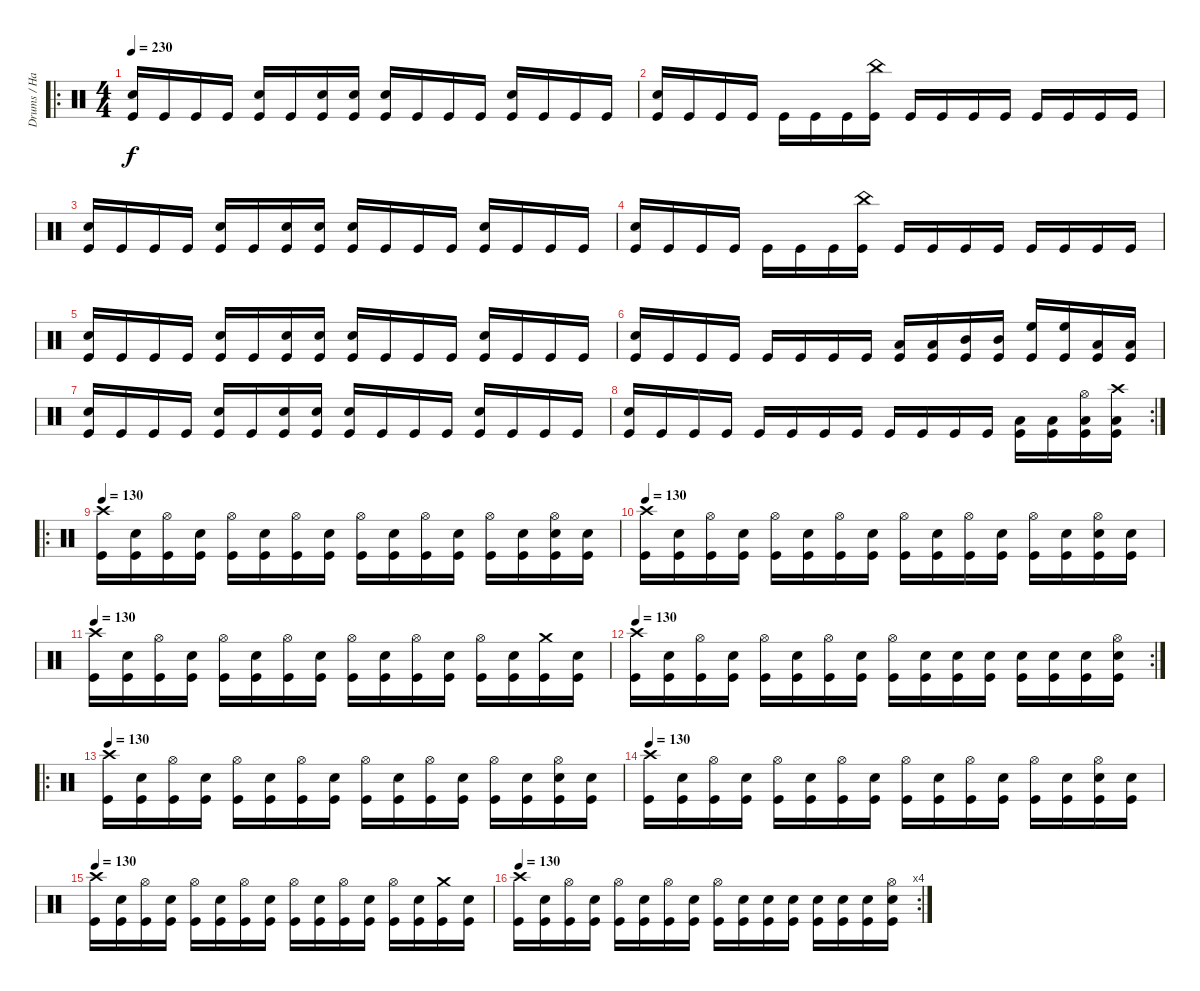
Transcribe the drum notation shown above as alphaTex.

\track ("Drums / Hammer of God" "Drums / Ha") {instrument percussion}
\staff {score}
\articulation defaults
\ro
\ts (4 4)
\tempo 230
\clef neutral
\ks c
("Kick (hit)" "Snare (hit) 2").16{dy f} "Kick (hit)".16 "Kick (hit)".16 "Kick (hit)".16 ("Kick (hit)" "Snare (hit) 2").16 "Kick (hit)".16 ("Kick (hit)" "Snare (hit) 2").16 ("Kick (hit)" "Snare (hit) 2").16 ("Kick (hit)" "Snare (hit) 2").16 "Kick (hit)".16 "Kick (hit)".16 "Kick (hit)".16 ("Kick (hit)" "Snare (hit) 2").16 "Kick (hit)".16 "Kick (hit)".16 "Kick (hit)".16 |
("Kick (hit)" "Snare (hit) 2").16 "Kick (hit)".16 "Kick (hit)".16 "Kick (hit)".16 "Kick (hit)".16 "Kick (hit)".16 "Kick (hit)".16 ("Kick (hit)" "China (hit)").16 "Kick (hit)".16 "Kick (hit)".16 "Kick (hit)".16 "Kick (hit)".16 "Kick (hit)".16 "Kick (hit)".16 "Kick (hit)".16 "Kick (hit)".16 |
("Kick (hit)" "Snare (hit) 2").16 "Kick (hit)".16 "Kick (hit)".16 "Kick (hit)".16 ("Kick (hit)" "Snare (hit) 2").16 "Kick (hit)".16 ("Kick (hit)" "Snare (hit) 2").16 ("Kick (hit)" "Snare (hit) 2").16 ("Kick (hit)" "Snare (hit) 2").16 "Kick (hit)".16 "Kick (hit)".16 "Kick (hit)".16 ("Kick (hit)" "Snare (hit) 2").16 "Kick (hit)".16 "Kick (hit)".16 "Kick (hit)".16 |
("Kick (hit)" "Snare (hit) 2").16 "Kick (hit)".16 "Kick (hit)".16 "Kick (hit)".16 "Kick (hit)".16 "Kick (hit)".16 "Kick (hit)".16 ("Kick (hit)" "China (hit)").16 "Kick (hit)".16 "Kick (hit)".16 "Kick (hit)".16 "Kick (hit)".16 "Kick (hit)".16 "Kick (hit)".16 "Kick (hit)".16 "Kick (hit)".16 |
("Kick (hit)" "Snare (hit) 2").16 "Kick (hit)".16 "Kick (hit)".16 "Kick (hit)".16 ("Kick (hit)" "Snare (hit) 2").16 "Kick (hit)".16 ("Kick (hit)" "Snare (hit) 2").16 ("Kick (hit)" "Snare (hit) 2").16 ("Kick (hit)" "Snare (hit) 2").16 "Kick (hit)".16 "Kick (hit)".16 "Kick (hit)".16 ("Kick (hit)" "Snare (hit) 2").16 "Kick (hit)".16 "Kick (hit)".16 "Kick (hit)".16 |
("Kick (hit)" "Snare (hit) 2").16 "Kick (hit)".16 "Kick (hit)".16 "Kick (hit)".16 "Kick (hit)".16 "Kick (hit)".16 "Kick (hit)".16 "Kick (hit)".16 ("Kick (hit)" "Low Tom (hit)").16 ("Kick (hit)" "Low Tom (hit)").16 ("Kick (hit)" "Mid Tom (hit)").16 ("Kick (hit)" "Mid Tom (hit)").16 ("Kick (hit)" "High Floor Tom (hit)").16 ("Kick (hit)" "High Floor Tom (hit)").16 ("Kick (hit)" "Low Floor Tom (hit)").16 ("Kick (hit)" "Low Floor Tom (hit)").16 |
("Kick (hit)" "Snare (hit) 2").16 "Kick (hit)".16 "Kick (hit)".16 "Kick (hit)".16 ("Kick (hit)" "Snare (hit) 2").16 "Kick (hit)".16 ("Kick (hit)" "Snare (hit) 2").16 ("Kick (hit)" "Snare (hit) 2").16 ("Kick (hit)" "Snare (hit) 2").16 "Kick (hit)".16 "Kick (hit)".16 "Kick (hit)".16 ("Kick (hit)" "Snare (hit) 2").16 "Kick (hit)".16 "Kick (hit)".16 "Kick (hit)".16 |
\rc 2
("Kick (hit)" "Snare (hit) 2").16 "Kick (hit)".16 "Kick (hit)".16 "Kick (hit)".16 "Kick (hit)".16 "Kick (hit)".16 "Kick (hit)".16 "Kick (hit)".16 "Kick (hit)".16 "Kick (hit)".16 "Kick (hit)".16 "Kick (hit)".16 ("Kick (hit)" "Low Tom (hit)").16 ("Kick (hit)" "Low Tom (hit)").16 ("Kick (hit)" "Low Tom (hit)" "Hi-Hat (open)").16 ("Kick (hit)" "Low Tom (hit)" "Crash high (hit)").16 |
\ro
\tempo 130
("Crash high (hit)" "Kick (hit)").16 ("Snare (hit) 2" "Kick (hit)").16 ("Hi-Hat (open)" "Kick (hit)").16 ("Snare (hit) 2" "Kick (hit)").16 ("Hi-Hat (open)" "Kick (hit)").16 ("Snare (hit) 2" "Kick (hit)").16 ("Hi-Hat (open)" "Kick (hit)").16 ("Snare (hit) 2" "Kick (hit)").16 ("Hi-Hat (open)" "Kick (hit)").16 ("Snare (hit) 2" "Kick (hit)").16 ("Hi-Hat (open)" "Kick (hit)").16 ("Snare (hit) 2" "Kick (hit)").16 ("Hi-Hat (open)" "Kick (hit)").16 ("Snare (hit) 2" "Kick (hit)").16 ("Hi-Hat (open)" "Snare (hit) 2" "Kick (hit)").16 ("Snare (hit) 2" "Kick (hit)").16 |
\tempo 130
("Crash high (hit)" "Kick (hit)").16 ("Snare (hit) 2" "Kick (hit)").16 ("Hi-Hat (open)" "Kick (hit)").16 ("Snare (hit) 2" "Kick (hit)").16 ("Hi-Hat (open)" "Kick (hit)").16 ("Snare (hit) 2" "Kick (hit)").16 ("Hi-Hat (open)" "Kick (hit)").16 ("Snare (hit) 2" "Kick (hit)").16 ("Hi-Hat (open)" "Kick (hit)").16 ("Snare (hit) 2" "Kick (hit)").16 ("Hi-Hat (open)" "Kick (hit)").16 ("Snare (hit) 2" "Kick (hit)").16 ("Hi-Hat (open)" "Kick (hit)").16 ("Snare (hit) 2" "Kick (hit)").16 ("Hi-Hat (open)" "Snare (hit) 2" "Kick (hit)").16 ("Snare (hit) 2" "Kick (hit)").16 |
\tempo 130
("Crash high (hit)" "Kick (hit)").16 ("Snare (hit) 2" "Kick (hit)").16 ("Hi-Hat (open)" "Kick (hit)").16 ("Snare (hit) 2" "Kick (hit)").16 ("Hi-Hat (open)" "Kick (hit)").16 ("Snare (hit) 2" "Kick (hit)").16 ("Hi-Hat (open)" "Kick (hit)").16 ("Snare (hit) 2" "Kick (hit)").16 ("Hi-Hat (open)" "Kick (hit)").16 ("Snare (hit) 2" "Kick (hit)").16 ("Hi-Hat (open)" "Kick (hit)").16 ("Snare (hit) 2" "Kick (hit)").16 ("Hi-Hat (open)" "Kick (hit)").16 ("Snare (hit) 2" "Kick (hit)").16 ("Crash medium (hit)" "Kick (hit)").16 ("Snare (hit) 2" "Kick (hit)").16 |
\rc 2
\tempo 130
("Crash high (hit)" "Kick (hit)").16 ("Snare (hit) 2" "Kick (hit)").16 ("Hi-Hat (open)" "Kick (hit)").16 ("Snare (hit) 2" "Kick (hit)").16 ("Hi-Hat (open)" "Kick (hit)").16 ("Snare (hit) 2" "Kick (hit)").16 ("Hi-Hat (open)" "Kick (hit)").16 ("Snare (hit) 2" "Kick (hit)").16 ("Hi-Hat (open)" "Kick (hit)").16 ("Snare (hit) 2" "Kick (hit)").16 ("Snare (hit) 2" "Kick (hit)").16 ("Snare (hit) 2" "Kick (hit)").16 ("Snare (hit) 2" "Kick (hit)").16 ("Snare (hit) 2" "Kick (hit)").16 ("Snare (hit) 2" "Kick (hit)").16 ("Hi-Hat (open)" "Snare (hit) 2" "Kick (hit)").16 |
\ro
\tempo 130
("Crash high (hit)" "Kick (hit)").16 ("Snare (hit) 2" "Kick (hit)").16 ("Hi-Hat (open)" "Kick (hit)").16 ("Snare (hit) 2" "Kick (hit)").16 ("Hi-Hat (open)" "Kick (hit)").16 ("Snare (hit) 2" "Kick (hit)").16 ("Hi-Hat (open)" "Kick (hit)").16 ("Snare (hit) 2" "Kick (hit)").16 ("Hi-Hat (open)" "Kick (hit)").16 ("Snare (hit) 2" "Kick (hit)").16 ("Hi-Hat (open)" "Kick (hit)").16 ("Snare (hit) 2" "Kick (hit)").16 ("Hi-Hat (open)" "Kick (hit)").16 ("Snare (hit) 2" "Kick (hit)").16 ("Hi-Hat (open)" "Snare (hit) 2" "Kick (hit)").16 ("Snare (hit) 2" "Kick (hit)").16 |
\tempo 130
("Crash high (hit)" "Kick (hit)").16 ("Snare (hit) 2" "Kick (hit)").16 ("Hi-Hat (open)" "Kick (hit)").16 ("Snare (hit) 2" "Kick (hit)").16 ("Hi-Hat (open)" "Kick (hit)").16 ("Snare (hit) 2" "Kick (hit)").16 ("Hi-Hat (open)" "Kick (hit)").16 ("Snare (hit) 2" "Kick (hit)").16 ("Hi-Hat (open)" "Kick (hit)").16 ("Snare (hit) 2" "Kick (hit)").16 ("Hi-Hat (open)" "Kick (hit)").16 ("Snare (hit) 2" "Kick (hit)").16 ("Hi-Hat (open)" "Kick (hit)").16 ("Snare (hit) 2" "Kick (hit)").16 ("Hi-Hat (open)" "Snare (hit) 2" "Kick (hit)").16 ("Snare (hit) 2" "Kick (hit)").16 |
\tempo 130
("Crash high (hit)" "Kick (hit)").16 ("Snare (hit) 2" "Kick (hit)").16 ("Hi-Hat (open)" "Kick (hit)").16 ("Snare (hit) 2" "Kick (hit)").16 ("Hi-Hat (open)" "Kick (hit)").16 ("Snare (hit) 2" "Kick (hit)").16 ("Hi-Hat (open)" "Kick (hit)").16 ("Snare (hit) 2" "Kick (hit)").16 ("Hi-Hat (open)" "Kick (hit)").16 ("Snare (hit) 2" "Kick (hit)").16 ("Hi-Hat (open)" "Kick (hit)").16 ("Snare (hit) 2" "Kick (hit)").16 ("Hi-Hat (open)" "Kick (hit)").16 ("Snare (hit) 2" "Kick (hit)").16 ("Crash medium (hit)" "Kick (hit)").16 ("Snare (hit) 2" "Kick (hit)").16 |
\rc 4
\tempo 130
("Crash high (hit)" "Kick (hit)").16 ("Snare (hit) 2" "Kick (hit)").16 ("Hi-Hat (open)" "Kick (hit)").16 ("Snare (hit) 2" "Kick (hit)").16 ("Hi-Hat (open)" "Kick (hit)").16 ("Snare (hit) 2" "Kick (hit)").16 ("Hi-Hat (open)" "Kick (hit)").16 ("Snare (hit) 2" "Kick (hit)").16 ("Hi-Hat (open)" "Kick (hit)").16 ("Snare (hit) 2" "Kick (hit)").16 ("Snare (hit) 2" "Kick (hit)").16 ("Snare (hit) 2" "Kick (hit)").16 ("Snare (hit) 2" "Kick (hit)").16 ("Snare (hit) 2" "Kick (hit)").16 ("Snare (hit) 2" "Kick (hit)").16 ("Hi-Hat (open)" "Snare (hit) 2" "Kick (hit)").16
